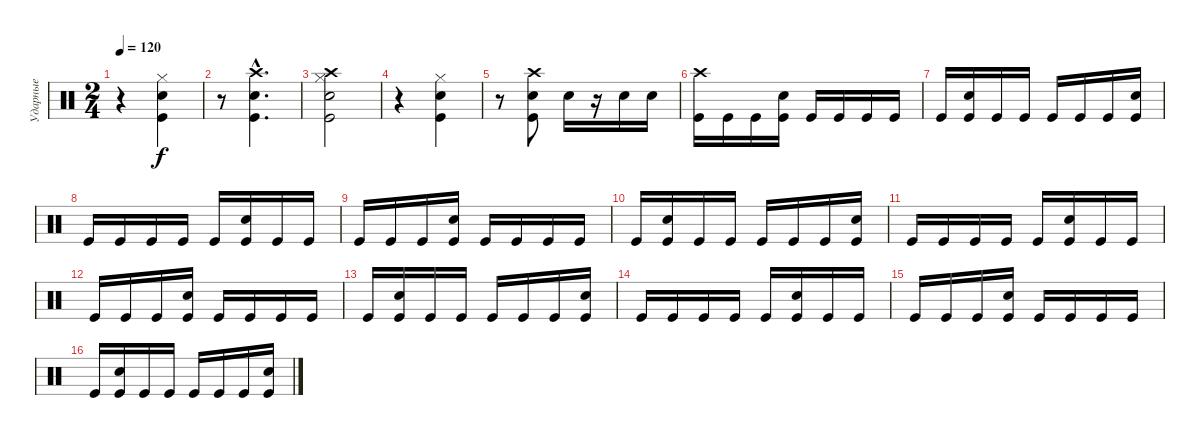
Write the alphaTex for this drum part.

\track ("Ударные" "Ударные") {instrument percussion}
\staff {score}
\articulation defaults
\ts (2 4)
\tempo 120
\clef neutral
\ks c
r.4{dy f} ("Hi-Hat (closed)" "Electric Snare (hit)" "Kick (hit)").4 |
r.8 ("Crash high (hit)"{hac} "Electric Snare (hit)"{hac} "Kick (hit)"{hac}).4{d} |
("Hi-Hat (closed)" "Crash high (hit)" "Electric Snare (hit)" "Kick (hit)").2 |
r.4 ("Hi-Hat (closed)" "Electric Snare (hit)" "Kick (hit)").4 |
r.8 ("Crash high (hit)" "Electric Snare (hit)" "Kick (hit)").8 "Electric Snare (hit)".16 r.16 "Electric Snare (hit)".16 "Electric Snare (hit)".16 |
("Crash high (hit)" "Kick (hit)").16 "Kick (hit)".16 "Kick (hit)".16 ("Electric Snare (hit)" "Kick (hit)").16 "Kick (hit)".16 "Kick (hit)".16 "Kick (hit)".16 "Kick (hit)".16 |
"Kick (hit)".16 ("Electric Snare (hit)" "Kick (hit)").16 "Kick (hit)".16 "Kick (hit)".16 "Kick (hit)".16 "Kick (hit)".16 "Kick (hit)".16 ("Electric Snare (hit)" "Kick (hit)").16 |
"Kick (hit)".16 "Kick (hit)".16 "Kick (hit)".16 "Kick (hit)".16 "Kick (hit)".16 ("Electric Snare (hit)" "Kick (hit)").16 "Kick (hit)".16 "Kick (hit)".16 |
"Kick (hit)".16 "Kick (hit)".16 "Kick (hit)".16 ("Electric Snare (hit)" "Kick (hit)").16 "Kick (hit)".16 "Kick (hit)".16 "Kick (hit)".16 "Kick (hit)".16 |
"Kick (hit)".16 ("Electric Snare (hit)" "Kick (hit)").16 "Kick (hit)".16 "Kick (hit)".16 "Kick (hit)".16 "Kick (hit)".16 "Kick (hit)".16 ("Electric Snare (hit)" "Kick (hit)").16 |
"Kick (hit)".16 "Kick (hit)".16 "Kick (hit)".16 "Kick (hit)".16 "Kick (hit)".16 ("Electric Snare (hit)" "Kick (hit)").16 "Kick (hit)".16 "Kick (hit)".16 |
"Kick (hit)".16 "Kick (hit)".16 "Kick (hit)".16 ("Electric Snare (hit)" "Kick (hit)").16 "Kick (hit)".16 "Kick (hit)".16 "Kick (hit)".16 "Kick (hit)".16 |
"Kick (hit)".16 ("Electric Snare (hit)" "Kick (hit)").16 "Kick (hit)".16 "Kick (hit)".16 "Kick (hit)".16 "Kick (hit)".16 "Kick (hit)".16 ("Electric Snare (hit)" "Kick (hit)").16 |
"Kick (hit)".16 "Kick (hit)".16 "Kick (hit)".16 "Kick (hit)".16 "Kick (hit)".16 ("Electric Snare (hit)" "Kick (hit)").16 "Kick (hit)".16 "Kick (hit)".16 |
"Kick (hit)".16 "Kick (hit)".16 "Kick (hit)".16 ("Electric Snare (hit)" "Kick (hit)").16 "Kick (hit)".16 "Kick (hit)".16 "Kick (hit)".16 "Kick (hit)".16 |
"Kick (hit)".16 ("Electric Snare (hit)" "Kick (hit)").16 "Kick (hit)".16 "Kick (hit)".16 "Kick (hit)".16 "Kick (hit)".16 "Kick (hit)".16 ("Electric Snare (hit)" "Kick (hit)").16
